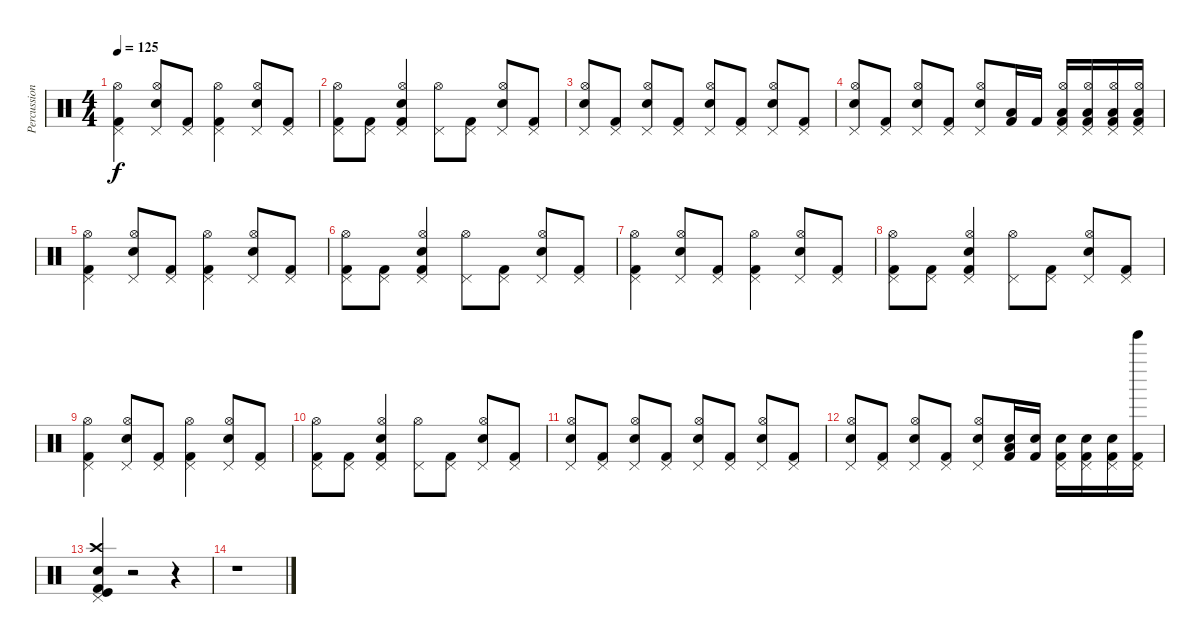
\track ("Percussion" "Percussion") {instrument percussion}
\staff {score}
\articulation defaults
\ts (4 4)
\tempo 125
\clef neutral
\ks c
("Pedal Hi-Hat (hit)" "Kick (hit) 2" "Hi-Hat (open)").4{dy f} ("Pedal Hi-Hat (hit)" "Snare (hit) 2" "Hi-Hat (open)").8 ("Pedal Hi-Hat (hit)" "Kick (hit) 2").8 ("Pedal Hi-Hat (hit)" "Kick (hit) 2" "Hi-Hat (open)").4 ("Pedal Hi-Hat (hit)" "Snare (hit) 2" "Hi-Hat (open)").8 ("Pedal Hi-Hat (hit)" "Kick (hit) 2").8 |
("Pedal Hi-Hat (hit)" "Kick (hit) 2" "Hi-Hat (open)").8 ("Pedal Hi-Hat (hit)" "Kick (hit) 2").8 ("Pedal Hi-Hat (hit)" "Kick (hit) 2" "Snare (hit) 2" "Hi-Hat (open)").4 ("Pedal Hi-Hat (hit)" "Hi-Hat (open)").8 ("Pedal Hi-Hat (hit)" "Kick (hit) 2").8 ("Pedal Hi-Hat (hit)" "Snare (hit) 2" "Hi-Hat (open)").8 ("Pedal Hi-Hat (hit)" "Kick (hit) 2").8 |
("Pedal Hi-Hat (hit)" "Snare (hit) 2" "Hi-Hat (open)").8 ("Pedal Hi-Hat (hit)" "Kick (hit) 2").8 ("Pedal Hi-Hat (hit)" "Snare (hit) 2" "Hi-Hat (open)").8 ("Pedal Hi-Hat (hit)" "Kick (hit) 2").8 ("Pedal Hi-Hat (hit)" "Snare (hit) 2" "Hi-Hat (open)").8 ("Pedal Hi-Hat (hit)" "Kick (hit) 2").8 ("Pedal Hi-Hat (hit)" "Snare (hit) 2" "Hi-Hat (open)").8 ("Pedal Hi-Hat (hit)" "Kick (hit) 2").8 |
("Pedal Hi-Hat (hit)" "Snare (hit) 2" "Hi-Hat (open)").8 ("Pedal Hi-Hat (hit)" "Kick (hit) 2").8 ("Pedal Hi-Hat (hit)" "Snare (hit) 2" "Hi-Hat (open)").8 ("Pedal Hi-Hat (hit)" "Kick (hit) 2").8 ("Pedal Hi-Hat (hit)" "Snare (hit) 2" "Hi-Hat (open)").8 ("Low Tom (hit)" "Kick (hit) 2").16 "Kick (hit) 2".16 ("Hi-Hat (open)" "Low Tom (hit)" "Kick (hit) 2" "Pedal Hi-Hat (hit)").16 ("Hi-Hat (open)" "Low Tom (hit)" "Kick (hit) 2" "Pedal Hi-Hat (hit)").16 ("Hi-Hat (open)" "Low Tom (hit)" "Kick (hit) 2" "Pedal Hi-Hat (hit)").16 ("Hi-Hat (open)" "Low Tom (hit)" "Kick (hit) 2" "Pedal Hi-Hat (hit)").16 |
("Pedal Hi-Hat (hit)" "Kick (hit) 2" "Hi-Hat (open)").4 ("Pedal Hi-Hat (hit)" "Snare (hit) 2" "Hi-Hat (open)").8 ("Pedal Hi-Hat (hit)" "Kick (hit) 2").8 ("Pedal Hi-Hat (hit)" "Kick (hit) 2" "Hi-Hat (open)").4 ("Pedal Hi-Hat (hit)" "Snare (hit) 2" "Hi-Hat (open)").8 ("Pedal Hi-Hat (hit)" "Kick (hit) 2").8 |
("Pedal Hi-Hat (hit)" "Kick (hit) 2" "Hi-Hat (open)").8 ("Pedal Hi-Hat (hit)" "Kick (hit) 2").8 ("Pedal Hi-Hat (hit)" "Kick (hit) 2" "Snare (hit) 2" "Hi-Hat (open)").4 ("Pedal Hi-Hat (hit)" "Hi-Hat (open)").8 ("Pedal Hi-Hat (hit)" "Kick (hit) 2").8 ("Pedal Hi-Hat (hit)" "Snare (hit) 2" "Hi-Hat (open)").8 ("Pedal Hi-Hat (hit)" "Kick (hit) 2").8 |
("Pedal Hi-Hat (hit)" "Kick (hit) 2" "Hi-Hat (open)").4 ("Pedal Hi-Hat (hit)" "Snare (hit) 2" "Hi-Hat (open)").8 ("Pedal Hi-Hat (hit)" "Kick (hit) 2").8 ("Pedal Hi-Hat (hit)" "Kick (hit) 2" "Hi-Hat (open)").4 ("Pedal Hi-Hat (hit)" "Snare (hit) 2" "Hi-Hat (open)").8 ("Pedal Hi-Hat (hit)" "Kick (hit) 2").8 |
("Pedal Hi-Hat (hit)" "Kick (hit) 2" "Hi-Hat (open)").8 ("Pedal Hi-Hat (hit)" "Kick (hit) 2").8 ("Pedal Hi-Hat (hit)" "Kick (hit) 2" "Snare (hit) 2" "Hi-Hat (open)").4 ("Pedal Hi-Hat (hit)" "Hi-Hat (open)").8 ("Pedal Hi-Hat (hit)" "Kick (hit) 2").8 ("Pedal Hi-Hat (hit)" "Snare (hit) 2" "Hi-Hat (open)").8 ("Pedal Hi-Hat (hit)" "Kick (hit) 2").8 |
("Pedal Hi-Hat (hit)" "Kick (hit) 2" "Hi-Hat (open)").4 ("Pedal Hi-Hat (hit)" "Snare (hit) 2" "Hi-Hat (open)").8 ("Pedal Hi-Hat (hit)" "Kick (hit) 2").8 ("Pedal Hi-Hat (hit)" "Kick (hit) 2" "Hi-Hat (open)").4 ("Pedal Hi-Hat (hit)" "Snare (hit) 2" "Hi-Hat (open)").8 ("Pedal Hi-Hat (hit)" "Kick (hit) 2").8 |
("Pedal Hi-Hat (hit)" "Kick (hit) 2" "Hi-Hat (open)").8 ("Pedal Hi-Hat (hit)" "Kick (hit) 2").8 ("Pedal Hi-Hat (hit)" "Kick (hit) 2" "Snare (hit) 2" "Hi-Hat (open)").4 ("Pedal Hi-Hat (hit)" "Hi-Hat (open)").8 ("Pedal Hi-Hat (hit)" "Kick (hit) 2").8 ("Pedal Hi-Hat (hit)" "Snare (hit) 2" "Hi-Hat (open)").8 ("Pedal Hi-Hat (hit)" "Kick (hit) 2").8 |
("Pedal Hi-Hat (hit)" "Snare (hit) 2" "Hi-Hat (open)").8 ("Pedal Hi-Hat (hit)" "Kick (hit) 2").8 ("Pedal Hi-Hat (hit)" "Snare (hit) 2" "Hi-Hat (open)").8 ("Pedal Hi-Hat (hit)" "Kick (hit) 2").8 ("Pedal Hi-Hat (hit)" "Snare (hit) 2" "Hi-Hat (open)").8 ("Pedal Hi-Hat (hit)" "Kick (hit) 2").8 ("Pedal Hi-Hat (hit)" "Snare (hit) 2" "Hi-Hat (open)").8 ("Pedal Hi-Hat (hit)" "Kick (hit) 2").8 |
("Pedal Hi-Hat (hit)" "Snare (hit) 2" "Hi-Hat (open)").8 ("Pedal Hi-Hat (hit)" "Kick (hit) 2").8 ("Pedal Hi-Hat (hit)" "Snare (hit) 2" "Hi-Hat (open)").8 ("Pedal Hi-Hat (hit)" "Kick (hit) 2").8 ("Pedal Hi-Hat (hit)" "Snare (hit) 2" "Hi-Hat (open)").8 ("Low Tom (hit)" "Kick (hit) 2" "Snare (hit) 2").16 ("Kick (hit) 2" "Snare (hit) 2").16 ("Kick (hit) 2" "Pedal Hi-Hat (hit)" "Snare (hit) 2").16 ("Kick (hit) 2" "Pedal Hi-Hat (hit)" "Snare (hit) 2").16 ("Kick (hit) 2" "Pedal Hi-Hat (hit)" "Snare (hit) 2").16 ("Kick (hit) 2" "Pedal Hi-Hat (hit)" "Tinkle Bell (hit)").16 |
("Pedal Hi-Hat (hit)" "Crash high (hit)" "Kick (hit) 2" "Snare (hit) 2" "Kick (hit)").4 r.2 r.4 |
r.1
